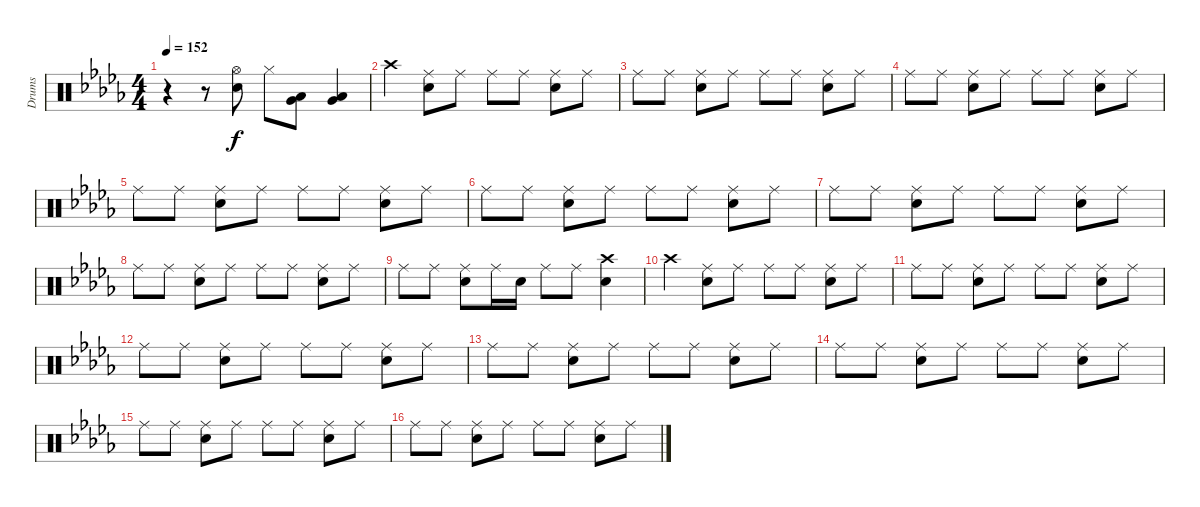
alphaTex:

\track ("Drums" "Drums") {instrument percussion}
\staff {score}
\articulation defaults
\ts (4 4)
\tempo 152
\clef neutral
\ks db
r.4{dy f} r.8 ("Hi-Hat (open)" "Snare (hit) 2").8 "Hi-Hat (closed)".8 ("Low Tom (hit)" "Very Low Tom (hit)").8 ("Low Tom (hit)" "Very Low Tom (hit)").4 |
"Crash high (hit)".4 ("Ride (middle)" "Snare (hit) 2").8 "Ride (middle)".8 "Ride (middle)".8 "Ride (middle)".8 ("Ride (middle)" "Snare (hit) 2").8 "Ride (middle)".8 |
"Ride (middle)".8 "Ride (middle)".8 ("Ride (middle)" "Snare (hit) 2").8 "Ride (middle)".8 "Ride (middle)".8 "Ride (middle)".8 ("Ride (middle)" "Snare (hit) 2").8 "Ride (middle)".8 |
"Ride (middle)".8 "Ride (middle)".8 ("Ride (middle)" "Snare (hit) 2").8 "Ride (middle)".8 "Ride (middle)".8 "Ride (middle)".8 ("Ride (middle)" "Snare (hit) 2").8 "Ride (middle)".8 |
"Ride (middle)".8 "Ride (middle)".8 ("Ride (middle)" "Snare (hit) 2").8 "Ride (middle)".8 "Ride (middle)".8 "Ride (middle)".8 ("Ride (middle)" "Snare (hit) 2").8 "Ride (middle)".8 |
"Ride (middle)".8 "Ride (middle)".8 ("Ride (middle)" "Snare (hit) 2").8 "Ride (middle)".8 "Ride (middle)".8 "Ride (middle)".8 ("Ride (middle)" "Snare (hit) 2").8 "Ride (middle)".8 |
"Ride (middle)".8 "Ride (middle)".8 ("Ride (middle)" "Snare (hit) 2").8 "Ride (middle)".8 "Ride (middle)".8 "Ride (middle)".8 ("Ride (middle)" "Snare (hit) 2").8 "Ride (middle)".8 |
"Ride (middle)".8 "Ride (middle)".8 ("Ride (middle)" "Snare (hit) 2").8 "Ride (middle)".8 "Ride (middle)".8 "Ride (middle)".8 ("Ride (middle)" "Snare (hit) 2").8 "Ride (middle)".8 |
"Ride (middle)".8 "Ride (middle)".8 ("Ride (middle)" "Snare (hit) 2").8 "Ride (middle)".16 "Snare (hit) 2".16 "Ride (middle)".8 "Ride (middle)".8 ("Crash high (hit)" "Snare (hit) 2").4 |
"Crash high (hit)".4 ("Ride (middle)" "Snare (hit) 2").8 "Ride (middle)".8 "Ride (middle)".8 "Ride (middle)".8 ("Ride (middle)" "Snare (hit) 2").8 "Ride (middle)".8 |
"Ride (middle)".8 "Ride (middle)".8 ("Ride (middle)" "Snare (hit) 2").8 "Ride (middle)".8 "Ride (middle)".8 "Ride (middle)".8 ("Ride (middle)" "Snare (hit) 2").8 "Ride (middle)".8 |
"Ride (middle)".8 "Ride (middle)".8 ("Ride (middle)" "Snare (hit) 2").8 "Ride (middle)".8 "Ride (middle)".8 "Ride (middle)".8 ("Ride (middle)" "Snare (hit) 2").8 "Ride (middle)".8 |
"Ride (middle)".8 "Ride (middle)".8 ("Ride (middle)" "Snare (hit) 2").8 "Ride (middle)".8 "Ride (middle)".8 "Ride (middle)".8 ("Ride (middle)" "Snare (hit) 2").8 "Ride (middle)".8 |
"Ride (middle)".8 "Ride (middle)".8 ("Ride (middle)" "Snare (hit) 2").8 "Ride (middle)".8 "Ride (middle)".8 "Ride (middle)".8 ("Ride (middle)" "Snare (hit) 2").8 "Ride (middle)".8 |
"Ride (middle)".8 "Ride (middle)".8 ("Ride (middle)" "Snare (hit) 2").8 "Ride (middle)".8 "Ride (middle)".8 "Ride (middle)".8 ("Ride (middle)" "Snare (hit) 2").8 "Ride (middle)".8 |
"Ride (middle)".8 "Ride (middle)".8 ("Ride (middle)" "Snare (hit) 2").8 "Ride (middle)".8 "Ride (middle)".8 "Ride (middle)".8 ("Ride (middle)" "Snare (hit) 2").8 "Ride (middle)".8
